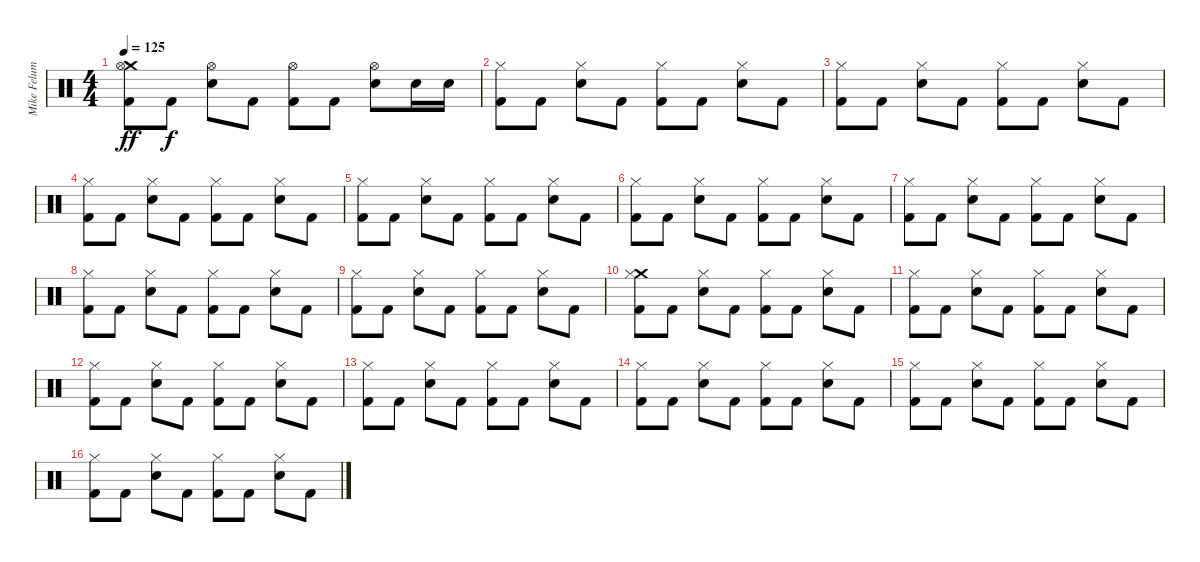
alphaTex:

\track ("Mike Felumlee" "Mike Felum") {instrument percussion}
\staff {score}
\articulation defaults
\ts (4 4)
\tempo 125
\clef neutral
\ks c
("Crash medium (hit)" "Hi-Hat (open)" "Kick (hit) 2").8{dy ff} "Kick (hit) 2".8{dy f} ("Hi-Hat (open)" "Electric Snare (hit)").8 "Kick (hit) 2".8 ("Hi-Hat (open)" "Kick (hit) 2").8 "Kick (hit) 2".8 ("Hi-Hat (open)" "Electric Snare (hit)").8 "Electric Snare (hit)".16 "Electric Snare (hit)".16 |
("Hi-Hat (closed)" "Kick (hit) 2").8 "Kick (hit) 2".8 ("Hi-Hat (closed)" "Electric Snare (hit)").8 "Kick (hit) 2".8 ("Hi-Hat (closed)" "Kick (hit) 2").8 "Kick (hit) 2".8 ("Hi-Hat (closed)" "Electric Snare (hit)").8 "Kick (hit) 2".8 |
("Hi-Hat (closed)" "Kick (hit) 2").8 "Kick (hit) 2".8 ("Hi-Hat (closed)" "Electric Snare (hit)").8 "Kick (hit) 2".8 ("Hi-Hat (closed)" "Kick (hit) 2").8 "Kick (hit) 2".8 ("Hi-Hat (closed)" "Electric Snare (hit)").8 "Kick (hit) 2".8 |
("Hi-Hat (closed)" "Kick (hit) 2").8 "Kick (hit) 2".8 ("Hi-Hat (closed)" "Electric Snare (hit)").8 "Kick (hit) 2".8 ("Hi-Hat (closed)" "Kick (hit) 2").8 "Kick (hit) 2".8 ("Hi-Hat (closed)" "Electric Snare (hit)").8 "Kick (hit) 2".8 |
("Hi-Hat (closed)" "Kick (hit) 2").8 "Kick (hit) 2".8 ("Hi-Hat (closed)" "Electric Snare (hit)").8 "Kick (hit) 2".8 ("Hi-Hat (closed)" "Kick (hit) 2").8 "Kick (hit) 2".8 ("Hi-Hat (closed)" "Electric Snare (hit)").8 "Kick (hit) 2".8 |
("Hi-Hat (closed)" "Kick (hit) 2").8 "Kick (hit) 2".8 ("Hi-Hat (closed)" "Electric Snare (hit)").8 "Kick (hit) 2".8 ("Hi-Hat (closed)" "Kick (hit) 2").8 "Kick (hit) 2".8 ("Hi-Hat (closed)" "Electric Snare (hit)").8 "Kick (hit) 2".8 |
("Hi-Hat (closed)" "Kick (hit) 2").8 "Kick (hit) 2".8 ("Hi-Hat (closed)" "Electric Snare (hit)").8 "Kick (hit) 2".8 ("Hi-Hat (closed)" "Kick (hit) 2").8 "Kick (hit) 2".8 ("Hi-Hat (closed)" "Electric Snare (hit)").8 "Kick (hit) 2".8 |
("Hi-Hat (closed)" "Kick (hit) 2").8 "Kick (hit) 2".8 ("Hi-Hat (closed)" "Electric Snare (hit)").8 "Kick (hit) 2".8 ("Hi-Hat (closed)" "Kick (hit) 2").8 "Kick (hit) 2".8 ("Hi-Hat (closed)" "Electric Snare (hit)").8 "Kick (hit) 2".8 |
("Hi-Hat (closed)" "Kick (hit) 2").8 "Kick (hit) 2".8 ("Hi-Hat (closed)" "Electric Snare (hit)").8 "Kick (hit) 2".8 ("Hi-Hat (closed)" "Kick (hit) 2").8 "Kick (hit) 2".8 ("Hi-Hat (closed)" "Electric Snare (hit)").8 "Kick (hit) 2".8 |
("Crash medium (hit)" "Hi-Hat (closed)" "Kick (hit) 2").8 "Kick (hit) 2".8 ("Hi-Hat (closed)" "Electric Snare (hit)").8 "Kick (hit) 2".8 ("Hi-Hat (closed)" "Kick (hit) 2").8 "Kick (hit) 2".8 ("Hi-Hat (closed)" "Electric Snare (hit)").8 "Kick (hit) 2".8 |
("Hi-Hat (closed)" "Kick (hit) 2").8 "Kick (hit) 2".8 ("Hi-Hat (closed)" "Electric Snare (hit)").8 "Kick (hit) 2".8 ("Hi-Hat (closed)" "Kick (hit) 2").8 "Kick (hit) 2".8 ("Hi-Hat (closed)" "Electric Snare (hit)").8 "Kick (hit) 2".8 |
("Hi-Hat (closed)" "Kick (hit) 2").8 "Kick (hit) 2".8 ("Hi-Hat (closed)" "Electric Snare (hit)").8 "Kick (hit) 2".8 ("Hi-Hat (closed)" "Kick (hit) 2").8 "Kick (hit) 2".8 ("Hi-Hat (closed)" "Electric Snare (hit)").8 "Kick (hit) 2".8 |
("Hi-Hat (closed)" "Kick (hit) 2").8 "Kick (hit) 2".8 ("Hi-Hat (closed)" "Electric Snare (hit)").8 "Kick (hit) 2".8 ("Hi-Hat (closed)" "Kick (hit) 2").8 "Kick (hit) 2".8 ("Hi-Hat (closed)" "Electric Snare (hit)").8 "Kick (hit) 2".8 |
("Hi-Hat (closed)" "Kick (hit) 2").8 "Kick (hit) 2".8 ("Hi-Hat (closed)" "Electric Snare (hit)").8 "Kick (hit) 2".8 ("Hi-Hat (closed)" "Kick (hit) 2").8 "Kick (hit) 2".8 ("Hi-Hat (closed)" "Electric Snare (hit)").8 "Kick (hit) 2".8 |
("Hi-Hat (closed)" "Kick (hit) 2").8 "Kick (hit) 2".8 ("Hi-Hat (closed)" "Electric Snare (hit)").8 "Kick (hit) 2".8 ("Hi-Hat (closed)" "Kick (hit) 2").8 "Kick (hit) 2".8 ("Hi-Hat (closed)" "Electric Snare (hit)").8 "Kick (hit) 2".8 |
("Hi-Hat (closed)" "Kick (hit) 2").8 "Kick (hit) 2".8 ("Hi-Hat (closed)" "Electric Snare (hit)").8 "Kick (hit) 2".8 ("Hi-Hat (closed)" "Kick (hit) 2").8 "Kick (hit) 2".8 ("Hi-Hat (closed)" "Electric Snare (hit)").8 "Kick (hit) 2".8
